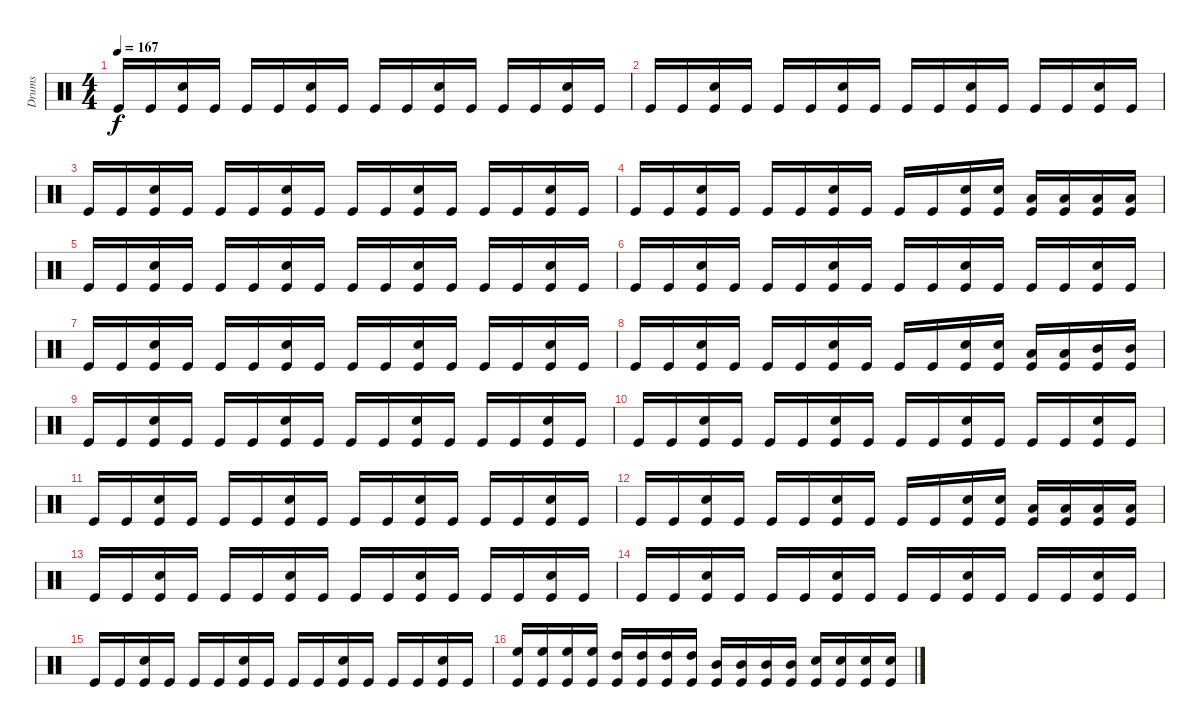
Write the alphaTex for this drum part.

\track ("Drums" "Drums") {instrument percussion}
\staff {score}
\articulation defaults
\ts (4 4)
\tempo 167
\clef neutral
\ks c "Kick (hit)".16{dy f} "Kick (hit)".16
("Snare (hit) 2" "Kick (hit)").16 "Kick (hit)".16 "Kick (hit)".16 "Kick (hit)".16 ("Snare (hit) 2" "Kick (hit)").16 "Kick (hit)".16 "Kick (hit)".16 "Kick (hit)".16 ("Snare (hit) 2" "Kick (hit)").16 "Kick (hit)".16 "Kick (hit)".16 "Kick (hit)".16 ("Snare (hit) 2" "Kick (hit)").16 "Kick (hit)".16 |
"Kick (hit)".16 "Kick (hit)".16 ("Snare (hit) 2" "Kick (hit)").16 "Kick (hit)".16 "Kick (hit)".16 "Kick (hit)".16 ("Snare (hit) 2" "Kick (hit)").16 "Kick (hit)".16 "Kick (hit)".16 "Kick (hit)".16 ("Snare (hit) 2" "Kick (hit)").16 "Kick (hit)".16 "Kick (hit)".16 "Kick (hit)".16 ("Snare (hit) 2" "Kick (hit)").16 "Kick (hit)".16 |
"Kick (hit)".16 "Kick (hit)".16 ("Snare (hit) 2" "Kick (hit)").16 "Kick (hit)".16 "Kick (hit)".16 "Kick (hit)".16 ("Snare (hit) 2" "Kick (hit)").16 "Kick (hit)".16 "Kick (hit)".16 "Kick (hit)".16 ("Snare (hit) 2" "Kick (hit)").16 "Kick (hit)".16 "Kick (hit)".16 "Kick (hit)".16 ("Snare (hit) 2" "Kick (hit)").16 "Kick (hit)".16 |
"Kick (hit)".16 "Kick (hit)".16 ("Snare (hit) 2" "Kick (hit)").16 "Kick (hit)".16 "Kick (hit)".16 "Kick (hit)".16 ("Snare (hit) 2" "Kick (hit)").16 "Kick (hit)".16 "Kick (hit)".16 "Kick (hit)".16 ("Snare (hit) 2" "Kick (hit)").16 ("Snare (hit) 2" "Kick (hit)").16 ("Low Floor Tom (hit)" "Kick (hit)").16 ("Low Floor Tom (hit)" "Kick (hit)").16 ("Low Tom (hit)" "Kick (hit)").16 ("Low Tom (hit)" "Kick (hit)").16 |
"Kick (hit)".16 "Kick (hit)".16 ("Snare (hit) 2" "Kick (hit)").16 "Kick (hit)".16 "Kick (hit)".16 "Kick (hit)".16 ("Snare (hit) 2" "Kick (hit)").16 "Kick (hit)".16 "Kick (hit)".16 "Kick (hit)".16 ("Snare (hit) 2" "Kick (hit)").16 "Kick (hit)".16 "Kick (hit)".16 "Kick (hit)".16 ("Snare (hit) 2" "Kick (hit)").16 "Kick (hit)".16 |
"Kick (hit)".16 "Kick (hit)".16 ("Snare (hit) 2" "Kick (hit)").16 "Kick (hit)".16 "Kick (hit)".16 "Kick (hit)".16 ("Snare (hit) 2" "Kick (hit)").16 "Kick (hit)".16 "Kick (hit)".16 "Kick (hit)".16 ("Snare (hit) 2" "Kick (hit)").16 "Kick (hit)".16 "Kick (hit)".16 "Kick (hit)".16 ("Snare (hit) 2" "Kick (hit)").16 "Kick (hit)".16 |
"Kick (hit)".16 "Kick (hit)".16 ("Snare (hit) 2" "Kick (hit)").16 "Kick (hit)".16 "Kick (hit)".16 "Kick (hit)".16 ("Snare (hit) 2" "Kick (hit)").16 "Kick (hit)".16 "Kick (hit)".16 "Kick (hit)".16 ("Snare (hit) 2" "Kick (hit)").16 "Kick (hit)".16 "Kick (hit)".16 "Kick (hit)".16 ("Snare (hit) 2" "Kick (hit)").16 "Kick (hit)".16 |
"Kick (hit)".16 "Kick (hit)".16 ("Snare (hit) 2" "Kick (hit)").16 "Kick (hit)".16 "Kick (hit)".16 "Kick (hit)".16 ("Snare (hit) 2" "Kick (hit)").16 "Kick (hit)".16 "Kick (hit)".16 "Kick (hit)".16 ("Snare (hit) 2" "Kick (hit)").16 ("Snare (hit) 2" "Kick (hit)").16 ("Low Floor Tom (hit)" "Kick (hit)").16 ("Low Floor Tom (hit)" "Kick (hit)").16 ("Mid Tom (hit)" "Kick (hit)").16 ("Mid Tom (hit)" "Kick (hit)").16 |
"Kick (hit)".16 "Kick (hit)".16 ("Snare (hit) 2" "Kick (hit)").16 "Kick (hit)".16 "Kick (hit)".16 "Kick (hit)".16 ("Snare (hit) 2" "Kick (hit)").16 "Kick (hit)".16 "Kick (hit)".16 "Kick (hit)".16 ("Snare (hit) 2" "Kick (hit)").16 "Kick (hit)".16 "Kick (hit)".16 "Kick (hit)".16 ("Snare (hit) 2" "Kick (hit)").16 "Kick (hit)".16 |
"Kick (hit)".16 "Kick (hit)".16 ("Snare (hit) 2" "Kick (hit)").16 "Kick (hit)".16 "Kick (hit)".16 "Kick (hit)".16 ("Snare (hit) 2" "Kick (hit)").16 "Kick (hit)".16 "Kick (hit)".16 "Kick (hit)".16 ("Snare (hit) 2" "Kick (hit)").16 "Kick (hit)".16 "Kick (hit)".16 "Kick (hit)".16 ("Snare (hit) 2" "Kick (hit)").16 "Kick (hit)".16 |
"Kick (hit)".16 "Kick (hit)".16 ("Snare (hit) 2" "Kick (hit)").16 "Kick (hit)".16 "Kick (hit)".16 "Kick (hit)".16 ("Snare (hit) 2" "Kick (hit)").16 "Kick (hit)".16 "Kick (hit)".16 "Kick (hit)".16 ("Snare (hit) 2" "Kick (hit)").16 "Kick (hit)".16 "Kick (hit)".16 "Kick (hit)".16 ("Snare (hit) 2" "Kick (hit)").16 "Kick (hit)".16 |
"Kick (hit)".16 "Kick (hit)".16 ("Snare (hit) 2" "Kick (hit)").16 "Kick (hit)".16 "Kick (hit)".16 "Kick (hit)".16 ("Snare (hit) 2" "Kick (hit)").16 "Kick (hit)".16 "Kick (hit)".16 "Kick (hit)".16 ("Snare (hit) 2" "Kick (hit)").16 ("Snare (hit) 2" "Kick (hit)").16 ("Low Floor Tom (hit)" "Kick (hit)").16 ("Low Floor Tom (hit)" "Kick (hit)").16 ("Low Tom (hit)" "Kick (hit)").16 ("Low Tom (hit)" "Kick (hit)").16 |
"Kick (hit)".16 "Kick (hit)".16 ("Snare (hit) 2" "Kick (hit)").16 "Kick (hit)".16 "Kick (hit)".16 "Kick (hit)".16 ("Snare (hit) 2" "Kick (hit)").16 "Kick (hit)".16 "Kick (hit)".16 "Kick (hit)".16 ("Snare (hit) 2" "Kick (hit)").16 "Kick (hit)".16 "Kick (hit)".16 "Kick (hit)".16 ("Snare (hit) 2" "Kick (hit)").16 "Kick (hit)".16 |
"Kick (hit)".16 "Kick (hit)".16 ("Snare (hit) 2" "Kick (hit)").16 "Kick (hit)".16 "Kick (hit)".16 "Kick (hit)".16 ("Snare (hit) 2" "Kick (hit)").16 "Kick (hit)".16 "Kick (hit)".16 "Kick (hit)".16 ("Snare (hit) 2" "Kick (hit)").16 "Kick (hit)".16 "Kick (hit)".16 "Kick (hit)".16 ("Snare (hit) 2" "Kick (hit)").16 "Kick (hit)".16 |
"Kick (hit)".16 "Kick (hit)".16 ("Snare (hit) 2" "Kick (hit)").16 "Kick (hit)".16 "Kick (hit)".16 "Kick (hit)".16 ("Snare (hit) 2" "Kick (hit)").16 "Kick (hit)".16 "Kick (hit)".16 "Kick (hit)".16 ("Snare (hit) 2" "Kick (hit)").16 "Kick (hit)".16 "Kick (hit)".16 "Kick (hit)".16 ("Snare (hit) 2" "Kick (hit)").16 "Kick (hit)".16 |
("High Floor Tom (hit)" "Kick (hit)").16 ("High Floor Tom (hit)" "Kick (hit)").16 ("High Floor Tom (hit)" "Kick (hit)").16 ("High Floor Tom (hit)" "Kick (hit)").16 ("High Tom (hit)" "Kick (hit)").16 ("High Tom (hit)" "Kick (hit)").16 ("High Tom (hit)" "Kick (hit)").16 ("High Tom (hit)" "Kick (hit)").16 ("Mid Tom (hit)" "Kick (hit)").16 ("Mid Tom (hit)" "Kick (hit)").16 ("Mid Tom (hit)" "Kick (hit)").16 ("Mid Tom (hit)" "Kick (hit)").16 ("Snare (hit) 2" "Kick (hit)").16 ("Snare (hit) 2" "Kick (hit)").16 ("Snare (hit) 2" "Kick (hit)").16 ("Snare (hit) 2" "Kick (hit)").16
